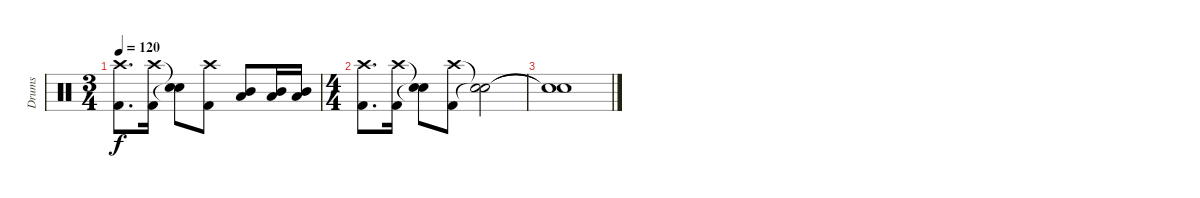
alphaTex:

\track ("Drums" "Drums") {instrument percussion}
\staff {score}
\articulation defaults
\ts (3 4)
\tempo 120
\clef neutral
\ks c
("Crash high (hit)" "Kick (hit) 2").8{d dy f} ("Crash high (hit)" "Kick (hit) 2").16 ("Snare (hit)"{t} "Snare (hit)"{t}).8 ("Crash high (hit)" "Kick (hit) 2").8 ("Mid Tom (hit)" "Low Tom (hit)").8 ("Mid Tom (hit)" "Low Tom (hit)").16 ("Mid Tom (hit)" "Low Tom (hit)").16 |
\ts (4 4)
("Crash high (hit)" "Kick (hit) 2").8{d} ("Crash high (hit)" "Kick (hit) 2").16 ("Snare (hit)"{t} "Snare (hit)"{t}).8 ("Crash high (hit)" "Kick (hit) 2").8 ("Snare (hit)"{t} "Snare (hit)"{t}).2 |
("Snare (hit)"{t} "Snare (hit)"{t}).1
